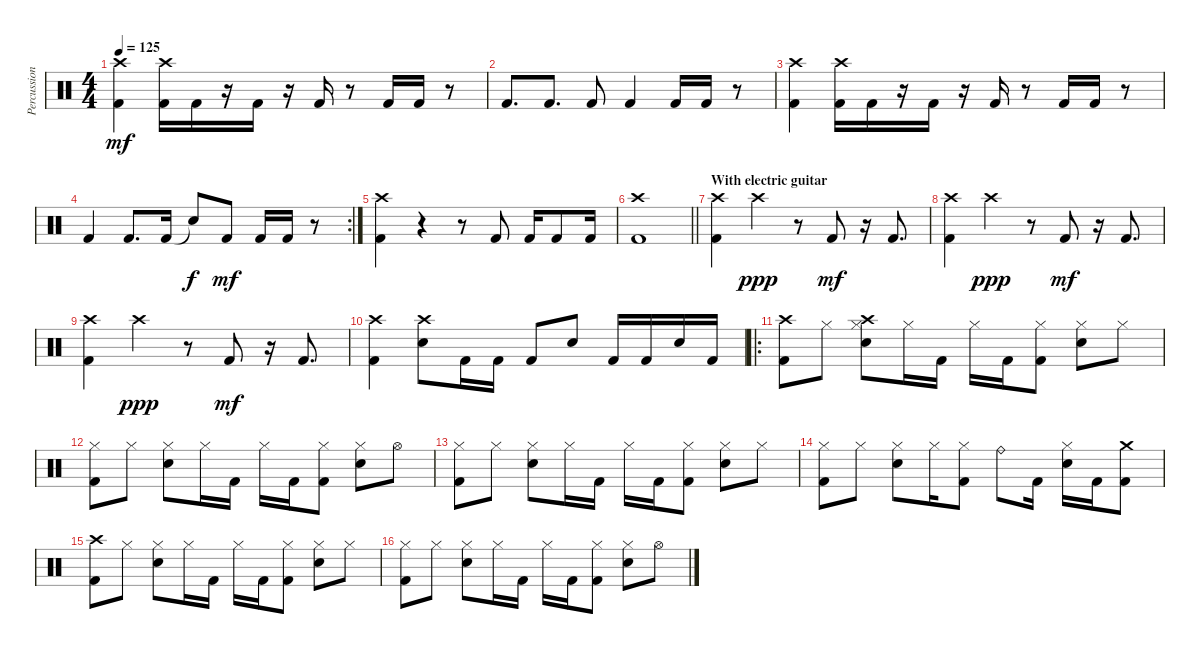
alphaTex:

\track ("Percussion" "Percussion") {instrument percussion}
\staff {score}
\articulation defaults
\ts (4 4)
\tempo 125
\clef neutral
\ks c
("Crash high (hit)" "Kick (hit) 2").4{dy mf} ("Crash high (hit)" "Kick (hit) 2").16 "Kick (hit) 2".16 r.16 "Kick (hit) 2".16 r.16 "Kick (hit) 2".16 r.8 "Kick (hit) 2".16 "Kick (hit) 2".16 r.8 |
"Kick (hit) 2".8{d} "Kick (hit) 2".8{d} "Kick (hit) 2".8 "Kick (hit) 2".4 "Kick (hit) 2".16 "Kick (hit) 2".16 r.8 |
("Crash high (hit)" "Kick (hit) 2").4 ("Crash high (hit)" "Kick (hit) 2").16 "Kick (hit) 2".16 r.16 "Kick (hit) 2".16 r.16 "Kick (hit) 2".16 r.8 "Kick (hit) 2".16 "Kick (hit) 2".16 r.8 |
\rc 2 "Kick (hit) 2".4 "Kick (hit) 2".8{d} "Kick (hit) 2".16 "Snare (hit)"{t}.8{dy f} "Kick (hit) 2".8{dy mf} "Kick (hit) 2".16 "Kick (hit) 2".16
r.8 |
("Crash high (hit)" "Kick (hit) 2").4 r.4 r.8 "Kick (hit) 2".8 "Kick (hit) 2".16 "Kick (hit) 2".8 "Kick (hit) 2".16 |
\barLineRight lightlight
("Crash high (hit)" "Kick (hit) 2").1 |
\section ("" "With electric guitar")
("Crash high (hit)" "Kick (hit) 2").4 "Crash high (hit)".4{dy ppp} r.8 "Kick (hit) 2".8{dy mf} r.16 "Kick (hit) 2".8{d} |
("Crash high (hit)" "Kick (hit) 2").4 "Crash high (hit)".4{dy ppp} r.8 "Kick (hit) 2".8{dy mf} r.16 "Kick (hit) 2".8{d} |
("Crash high (hit)" "Kick (hit) 2").4 "Crash high (hit)".4{dy ppp} r.8 "Kick (hit) 2".8{dy mf} r.16 "Kick (hit) 2".8{d} |
("Crash high (hit)" "Kick (hit) 2").4 ("Crash high (hit)" "Electric Snare (hit)").8 "Kick (hit) 2".16 "Kick (hit) 2".16 "Kick (hit) 2".8 "Electric Snare (hit)".8 "Kick (hit) 2".16 "Kick (hit) 2".16 "Electric Snare (hit)".16 "Kick (hit) 2".16 |
\ro
("Crash high (hit)" "Kick (hit) 2").8 "Hi-Hat (closed)".8 ("Crash high (hit)" "Hi-Hat (closed)" "Electric Snare (hit)").8 "Hi-Hat (closed)".16 "Kick (hit) 2".16 "Hi-Hat (closed)".16 "Kick (hit) 2".16 ("Hi-Hat (closed)" "Kick (hit) 2").8 ("Hi-Hat (closed)" "Electric Snare (hit)").8 "Hi-Hat (closed)".8 |
("Hi-Hat (closed)" "Kick (hit) 2").8 "Hi-Hat (closed)".8 ("Hi-Hat (closed)" "Electric Snare (hit)").8 "Hi-Hat (closed)".16 "Kick (hit) 2".16 "Hi-Hat (closed)".16 "Kick (hit) 2".16 ("Hi-Hat (closed)" "Kick (hit) 2").8 ("Hi-Hat (closed)" "Electric Snare (hit)").8 "Hi-Hat (open)".8 |
("Hi-Hat (closed)" "Kick (hit) 2").8 "Hi-Hat (closed)".8 ("Hi-Hat (closed)" "Electric Snare (hit)").8 "Hi-Hat (closed)".16 "Kick (hit) 2".16 "Hi-Hat (closed)".16 "Kick (hit) 2".16 ("Hi-Hat (closed)" "Kick (hit) 2").8 ("Hi-Hat (closed)" "Electric Snare (hit)").8 "Hi-Hat (closed)".8 |
("Hi-Hat (closed)" "Kick (hit) 2").8 "Hi-Hat (closed)".8 ("Hi-Hat (closed)" "Electric Snare (hit)").8 "Hi-Hat (closed)".16 ("Hi-Hat (closed)" "Kick (hit) 2").8 "Ride (bell)".8 "Kick (hit) 2".16 ("Hi-Hat (closed)" "Electric Snare (hit)").16 "Kick (hit) 2".16 ("Crash medium (hit)" "Kick (hit) 2").8 |
("Crash high (hit)" "Kick (hit) 2").8 "Hi-Hat (closed)".8 ("Hi-Hat (closed)" "Electric Snare (hit)").8 "Hi-Hat (closed)".16 "Kick (hit) 2".16 "Hi-Hat (closed)".16 "Kick (hit) 2".16 ("Hi-Hat (closed)" "Kick (hit) 2").8 ("Hi-Hat (closed)" "Electric Snare (hit)").8 "Hi-Hat (closed)".8 |
("Hi-Hat (closed)" "Kick (hit) 2").8 "Hi-Hat (closed)".8 ("Hi-Hat (closed)" "Electric Snare (hit)").8 "Hi-Hat (closed)".16 "Kick (hit) 2".16 "Hi-Hat (closed)".16 "Kick (hit) 2".16 ("Hi-Hat (closed)" "Kick (hit) 2").8 ("Hi-Hat (closed)" "Electric Snare (hit)").8 "Hi-Hat (open)".8
